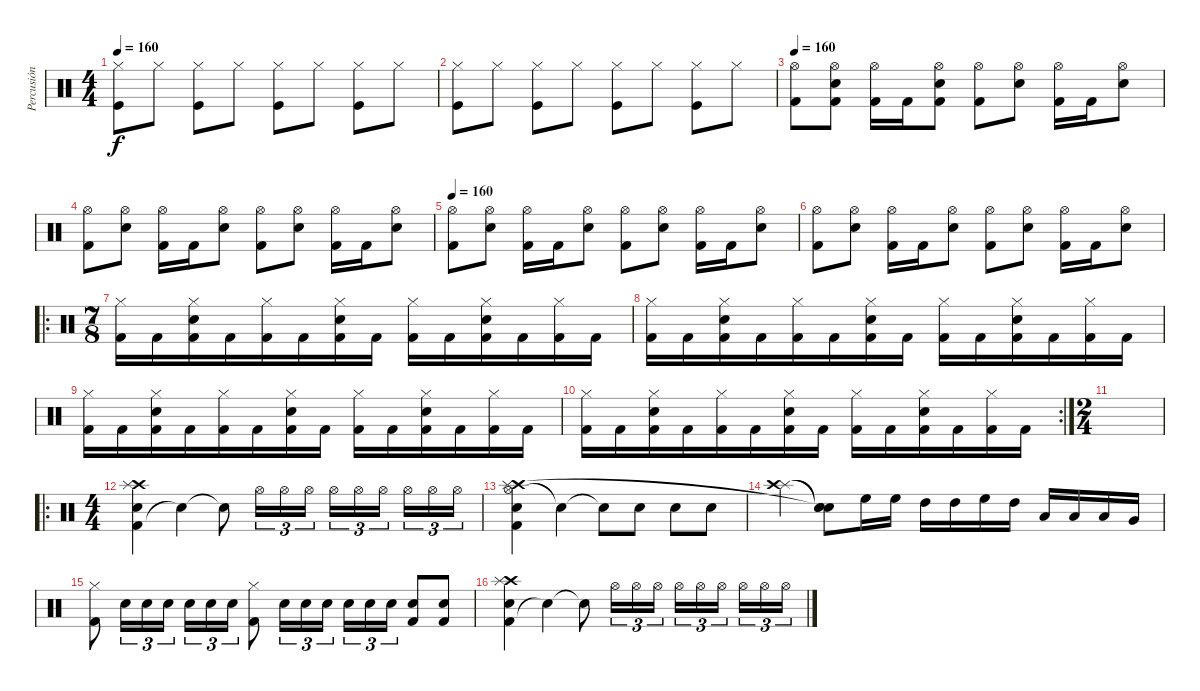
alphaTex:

\track ("Percusión" "Percusión") {instrument percussion}
\staff {score}
\articulation defaults
\ts (4 4)
\tempo 160
\clef neutral
\ks c
("Kick (hit)" "Hi-Hat (closed)").8{dy f} "Hi-Hat (closed)".8 ("Kick (hit)" "Hi-Hat (closed)").8 "Hi-Hat (closed)".8 ("Kick (hit)" "Hi-Hat (closed)").8 "Hi-Hat (closed)".8 ("Kick (hit)" "Hi-Hat (closed)").8 "Hi-Hat (closed)".8 |
("Kick (hit)" "Hi-Hat (closed)").8 "Hi-Hat (closed)".8 ("Kick (hit)" "Hi-Hat (closed)").8 "Hi-Hat (closed)".8 ("Kick (hit)" "Hi-Hat (closed)").8 "Hi-Hat (closed)".8 ("Kick (hit)" "Hi-Hat (closed)").8 "Hi-Hat (closed)".8 |
\tempo 160
("Hi-Hat (open)" "Kick (hit) 2").8 ("Hi-Hat (open)" "Snare (hit) 2" "Kick (hit) 2").8 ("Hi-Hat (open)" "Kick (hit) 2").16 "Kick (hit) 2".16 ("Hi-Hat (open)" "Snare (hit) 2" "Kick (hit) 2").8 ("Hi-Hat (open)" "Kick (hit) 2").8 ("Hi-Hat (open)" "Snare (hit) 2").8 ("Hi-Hat (open)" "Kick (hit) 2").16 "Kick (hit) 2".16 ("Hi-Hat (open)" "Snare (hit) 2").8 |
("Hi-Hat (open)" "Kick (hit) 2").8 ("Hi-Hat (open)" "Snare (hit) 2").8 ("Hi-Hat (open)" "Kick (hit) 2").16 "Kick (hit) 2".16 ("Hi-Hat (open)" "Snare (hit) 2").8 ("Hi-Hat (open)" "Kick (hit) 2").8 ("Hi-Hat (open)" "Snare (hit) 2").8 ("Hi-Hat (open)" "Kick (hit) 2").16 "Kick (hit) 2".16 ("Hi-Hat (open)" "Snare (hit) 2").8 |
\tempo 160
("Hi-Hat (open)" "Kick (hit) 2").8 ("Hi-Hat (open)" "Snare (hit) 2").8 ("Hi-Hat (open)" "Kick (hit) 2").16 "Kick (hit) 2".16 ("Hi-Hat (open)" "Snare (hit) 2").8 ("Hi-Hat (open)" "Kick (hit) 2").8 ("Hi-Hat (open)" "Snare (hit) 2").8 ("Hi-Hat (open)" "Kick (hit) 2").16 "Kick (hit) 2".16 ("Hi-Hat (open)" "Snare (hit) 2").8 |
("Hi-Hat (open)" "Kick (hit) 2").8 ("Hi-Hat (open)" "Snare (hit) 2").8 ("Hi-Hat (open)" "Kick (hit) 2").16 "Kick (hit) 2".16 ("Hi-Hat (open)" "Snare (hit) 2").8 ("Hi-Hat (open)" "Kick (hit) 2").8 ("Hi-Hat (open)" "Snare (hit) 2").8 ("Hi-Hat (open)" "Kick (hit) 2").16 "Kick (hit) 2".16 ("Hi-Hat (open)" "Snare (hit) 2").8 |
\ro
\ts (7 8)
("Kick (hit) 2" "Hi-Hat (closed)").16 "Kick (hit) 2".16 ("Kick (hit) 2" "Snare (hit) 2" "Hi-Hat (closed)").16 "Kick (hit) 2".16 ("Kick (hit) 2" "Hi-Hat (closed)").16 "Kick (hit) 2".16 ("Kick (hit) 2" "Snare (hit) 2" "Hi-Hat (closed)").16 "Kick (hit) 2".16 ("Kick (hit) 2" "Hi-Hat (closed)").16 "Kick (hit) 2".16 ("Kick (hit) 2" "Snare (hit) 2" "Hi-Hat (closed)").16 "Kick (hit) 2".16 ("Kick (hit) 2" "Hi-Hat (closed)").16 "Kick (hit) 2".16 |
("Kick (hit) 2" "Hi-Hat (closed)").16 "Kick (hit) 2".16 ("Kick (hit) 2" "Snare (hit) 2" "Hi-Hat (closed)").16 "Kick (hit) 2".16 ("Kick (hit) 2" "Hi-Hat (closed)").16 "Kick (hit) 2".16 ("Kick (hit) 2" "Snare (hit) 2" "Hi-Hat (closed)").16 "Kick (hit) 2".16 ("Kick (hit) 2" "Hi-Hat (closed)").16 "Kick (hit) 2".16 ("Kick (hit) 2" "Snare (hit) 2" "Hi-Hat (closed)").16 "Kick (hit) 2".16 ("Kick (hit) 2" "Hi-Hat (closed)").16 "Kick (hit) 2".16 |
("Kick (hit) 2" "Hi-Hat (closed)").16 "Kick (hit) 2".16 ("Kick (hit) 2" "Snare (hit) 2" "Hi-Hat (closed)").16 "Kick (hit) 2".16 ("Kick (hit) 2" "Hi-Hat (closed)").16 "Kick (hit) 2".16 ("Kick (hit) 2" "Snare (hit) 2" "Hi-Hat (closed)").16 "Kick (hit) 2".16 ("Kick (hit) 2" "Hi-Hat (closed)").16 "Kick (hit) 2".16 ("Kick (hit) 2" "Snare (hit) 2" "Hi-Hat (closed)").16 "Kick (hit) 2".16 ("Kick (hit) 2" "Hi-Hat (closed)").16 "Kick (hit) 2".16 |
\rc 2
("Kick (hit) 2" "Hi-Hat (closed)").16 "Kick (hit) 2".16 ("Kick (hit) 2" "Snare (hit) 2" "Hi-Hat (closed)").16 "Kick (hit) 2".16 ("Kick (hit) 2" "Hi-Hat (closed)").16 "Kick (hit) 2".16 ("Kick (hit) 2" "Snare (hit) 2" "Hi-Hat (closed)").16 "Kick (hit) 2".16 ("Kick (hit) 2" "Hi-Hat (closed)").16 "Kick (hit) 2".16 ("Kick (hit) 2" "Snare (hit) 2" "Hi-Hat (closed)").16 "Kick (hit) 2".16 ("Kick (hit) 2" "Hi-Hat (closed)").16 "Kick (hit) 2".16 |
\ts (2 4)
|
\ro
\ts (4 4)
("Kick (hit) 2" "Crash high (hit)" "Splash (hit)" "Snare (hit) 2").4 "Snare (hit)"{t}.4 "Snare (hit)"{t}.8 "Hi-Hat (open)".16{tu (3 2)} "Hi-Hat (open)".16{tu (3 2)} "Hi-Hat (open)".16{tu (3 2)} "Hi-Hat (open)".16{tu (3 2)} "Hi-Hat (open)".16{tu (3 2)} "Hi-Hat (open)".16{tu (3 2)} "Hi-Hat (open)".16{tu (3 2)} "Hi-Hat (open)".16{tu (3 2)} "Hi-Hat (open)".16{tu (3 2)} |
("Hi-Hat (open)" "Crash high (hit)" "Splash (hit)" "Snare (hit) 2" "Kick (hit) 2").4 "Snare (hit)"{t}.4 "Snare (hit)"{t}.8 "Snare (hit) 2".8 "Snare (hit) 2".8 "Snare (hit) 2".8 |
("Splash (hit)" "Crash high (hit)").4 ("Snare (hit)"{t} "Snare (hit)"{t} "Snare (hit)"{t}).8 "High Floor Tom (hit)".16 "High Floor Tom (hit)".16 "High Tom (hit)".16 "High Tom (hit)".16 "High Floor Tom (hit)".16 "High Tom (hit)".16 "Low Tom (hit)".16 "Low Tom (hit)".16 "Low Tom (hit)".16 "Very Low Tom (hit)".16 |
("Hi-Hat (closed)" "Kick (hit) 2").8 "Snare (hit) 2".16{tu (3 2)} "Snare (hit) 2".16{tu (3 2)} "Snare (hit) 2".16{tu (3 2)} "Snare (hit) 2".16{tu (3 2)} "Snare (hit) 2".16{tu (3 2)} "Snare (hit) 2".16{tu (3 2)} ("Hi-Hat (closed)" "Kick (hit) 2").8 "Snare (hit) 2".16{tu (3 2)} "Snare (hit) 2".16{tu (3 2)} "Snare (hit) 2".16{tu (3 2)} "Snare (hit) 2".16{tu (3 2)} "Snare (hit) 2".16{tu (3 2)} "Snare (hit) 2".16{tu (3 2)} ("Snare (hit) 2" "Kick (hit) 2").8 ("Snare (hit) 2" "Kick (hit) 2").8 |
("Kick (hit) 2" "Crash high (hit)" "Splash (hit)" "Snare (hit) 2").4 "Snare (hit)"{t}.4 "Snare (hit)"{t}.8 "Hi-Hat (open)".16{tu (3 2)} "Hi-Hat (open)".16{tu (3 2)} "Hi-Hat (open)".16{tu (3 2)} "Hi-Hat (open)".16{tu (3 2)} "Hi-Hat (open)".16{tu (3 2)} "Hi-Hat (open)".16{tu (3 2)} "Hi-Hat (open)".16{tu (3 2)} "Hi-Hat (open)".16{tu (3 2)} "Hi-Hat (open)".16{tu (3 2)}
